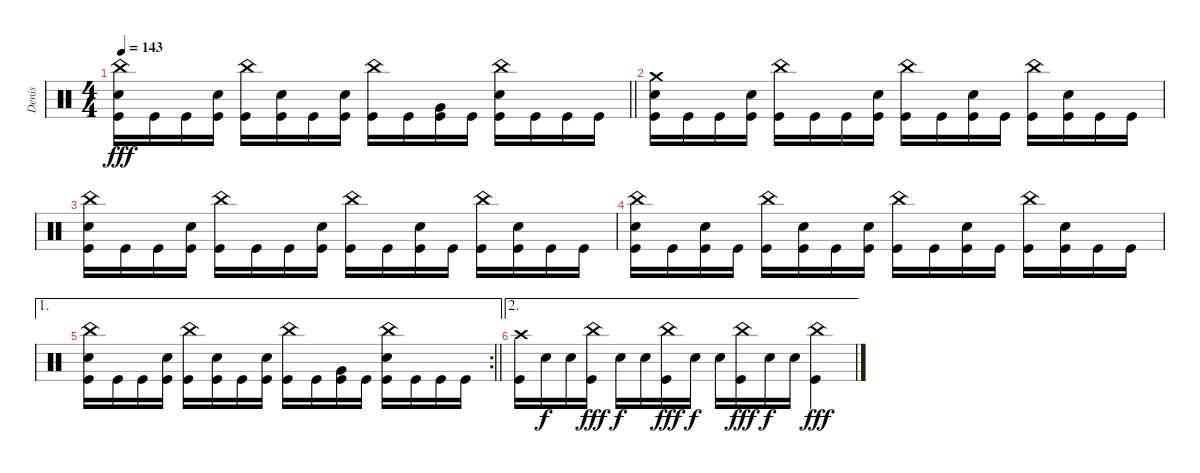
\track ("Denis" "Denis") {instrument percussion}
\staff {score}
\articulation defaults
\ts (4 4)
\tempo 143
\clef neutral
\barLineRight lightlight
\ks c
("Kick (hit)" "Electric Snare (hit)" "China (hit)").16{dy fff} "Kick (hit)".16 "Kick (hit)".16 ("Kick (hit)" "Electric Snare (hit)").16 ("Kick (hit)" "China (hit)").16 ("Kick (hit)" "Electric Snare (hit)").16 "Kick (hit)".16 ("Kick (hit)" "Electric Snare (hit)").16 ("Kick (hit)" "China (hit)").16 "Kick (hit)".16 ("Kick (hit)" "Very Low Tom (hit)").16 "Kick (hit)".16 ("Kick (hit)" "Electric Snare (hit)" "China (hit)").16 "Kick (hit)".16 "Kick (hit)".16 "Kick (hit)".16 |
("Kick (hit)" "Crash medium (hit)" "Electric Snare (hit)").16 "Kick (hit)".16 "Kick (hit)".16 ("Kick (hit)" "Electric Snare (hit)").16 ("Kick (hit)" "China (hit)").16 "Kick (hit)".16 "Kick (hit)".16 ("Kick (hit)" "Electric Snare (hit)").16 ("Kick (hit)" "China (hit)").16 "Kick (hit)".16 ("Kick (hit)" "Electric Snare (hit)").16 "Kick (hit)".16 ("Kick (hit)" "China (hit)").16 ("Kick (hit)" "Electric Snare (hit)").16 "Kick (hit)".16 "Kick (hit)".16 |
("Kick (hit)" "China (hit)" "Electric Snare (hit)").16 "Kick (hit)".16 "Kick (hit)".16 ("Kick (hit)" "Electric Snare (hit)").16 ("Kick (hit)" "China (hit)").16 "Kick (hit)".16 "Kick (hit)".16 ("Kick (hit)" "Electric Snare (hit)").16 ("Kick (hit)" "China (hit)").16 "Kick (hit)".16 ("Kick (hit)" "Electric Snare (hit)").16 "Kick (hit)".16 ("Kick (hit)" "China (hit)").16 ("Kick (hit)" "Electric Snare (hit)").16 "Kick (hit)".16 "Kick (hit)".16 |
("Kick (hit)" "China (hit)" "Electric Snare (hit)").16 "Kick (hit)".16 ("Kick (hit)" "Electric Snare (hit)").16 "Kick (hit)".16 ("Kick (hit)" "China (hit)").16 ("Kick (hit)" "Electric Snare (hit)").16 "Kick (hit)".16 ("Kick (hit)" "Electric Snare (hit)").16 ("Kick (hit)" "China (hit)").16 "Kick (hit)".16 ("Kick (hit)" "Electric Snare (hit)").16 "Kick (hit)".16 ("Kick (hit)" "China (hit)").16 ("Kick (hit)" "Electric Snare (hit)").16 "Kick (hit)".16 "Kick (hit)".16 |
\ae 1
\rc 2
\barLineRight lightlight
("Kick (hit)" "Electric Snare (hit)" "China (hit)").16 "Kick (hit)".16 "Kick (hit)".16 ("Kick (hit)" "Electric Snare (hit)").16 ("Kick (hit)" "China (hit)").16 ("Kick (hit)" "Electric Snare (hit)").16 "Kick (hit)".16 ("Kick (hit)" "Electric Snare (hit)").16 ("Kick (hit)" "China (hit)").16 "Kick (hit)".16 ("Kick (hit)" "Very Low Tom (hit)").16 "Kick (hit)".16 ("Kick (hit)" "Electric Snare (hit)" "China (hit)").16 "Kick (hit)".16 "Kick (hit)".16 "Kick (hit)".16 |
\ae 2
("Crash high (hit)" "Kick (hit)").16 "Electric Snare (hit)".16{dy f} "Electric Snare (hit)".16 ("Kick (hit)" "China (hit)").16{dy fff} "Electric Snare (hit)".16{dy f} "Electric Snare (hit)".16 ("Kick (hit)" "China (hit)").16{dy fff} "Electric Snare (hit)".16{dy f} "Electric Snare (hit)".16 ("Kick (hit)" "China (hit)").16{dy fff} "Electric Snare (hit)".16{dy f} "Electric Snare (hit)".16 ("Kick (hit)" "China (hit)").4{dy fff}
